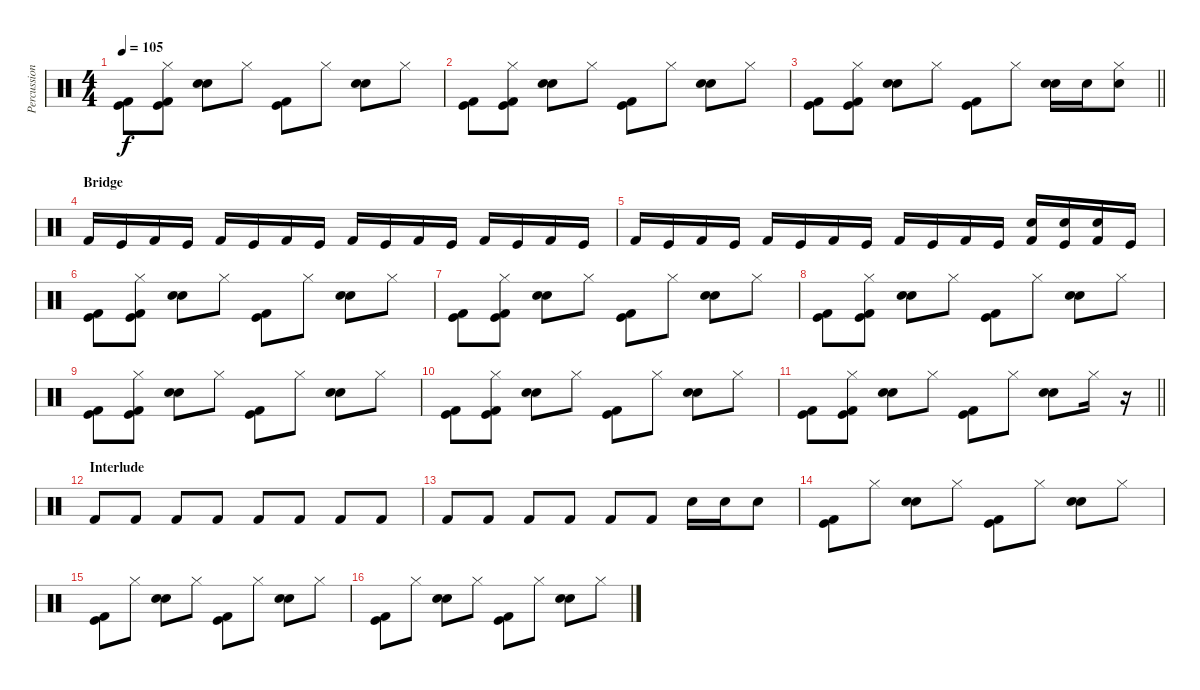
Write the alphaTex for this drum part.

\track ("Percussion" "Percussion") {instrument percussion}
\staff {score}
\articulation defaults
\ts (4 4)
\tempo 105
\clef neutral
\ks c
("Kick (hit) 2" "Kick (hit)").8{dy f} ("Hi-Hat (closed)" "Kick (hit) 2" "Kick (hit)").8 ("Hand Clap (hit)" "Electric Snare (hit)").8 "Hi-Hat (closed)".8 ("Kick (hit) 2" "Kick (hit)").8 "Hi-Hat (closed)".8 ("Hand Clap (hit)" "Electric Snare (hit)").8 "Hi-Hat (closed)".8 |
("Kick (hit) 2" "Kick (hit)").8 ("Hi-Hat (closed)" "Kick (hit) 2" "Kick (hit)").8 ("Hand Clap (hit)" "Electric Snare (hit)").8 "Hi-Hat (closed)".8 ("Kick (hit) 2" "Kick (hit)").8 "Hi-Hat (closed)".8 ("Hand Clap (hit)" "Electric Snare (hit)").8 "Hi-Hat (closed)".8 |
\barLineRight lightlight
("Kick (hit) 2" "Kick (hit)").8 ("Hi-Hat (closed)" "Kick (hit) 2" "Kick (hit)").8 ("Hand Clap (hit)" "Electric Snare (hit)").8 "Hi-Hat (closed)".8 ("Kick (hit) 2" "Kick (hit)").8 "Hi-Hat (closed)".8 ("Snare (hit) 2" "Hand Clap (hit)").16 "Snare (hit) 2".16 ("Hi-Hat (closed)" "Snare (hit) 2").8 |
\section ("" "Bridge")
"Kick (hit) 2".16 "Kick (hit)".16 "Kick (hit) 2".16 "Kick (hit)".16 "Kick (hit) 2".16 "Kick (hit)".16 "Kick (hit) 2".16 "Kick (hit)".16 "Kick (hit) 2".16 "Kick (hit)".16 "Kick (hit) 2".16 "Kick (hit)".16 "Kick (hit) 2".16 "Kick (hit)".16 "Kick (hit) 2".16 "Kick (hit)".16 |
"Kick (hit) 2".16 "Kick (hit)".16 "Kick (hit) 2".16 "Kick (hit)".16 "Kick (hit) 2".16 "Kick (hit)".16 "Kick (hit) 2".16 "Kick (hit)".16 "Kick (hit) 2".16 "Kick (hit)".16 "Kick (hit) 2".16 "Kick (hit)".16 ("Electric Snare (hit)" "Kick (hit) 2").16 ("Electric Snare (hit)" "Kick (hit)").16 ("Snare (hit) 2" "Kick (hit) 2").16 "Kick (hit)".16 |
("Kick (hit) 2" "Kick (hit)").8 ("Hi-Hat (closed)" "Kick (hit) 2" "Kick (hit)").8 ("Hand Clap (hit)" "Electric Snare (hit)").8 "Hi-Hat (closed)".8 ("Kick (hit) 2" "Kick (hit)").8 "Hi-Hat (closed)".8 ("Hand Clap (hit)" "Electric Snare (hit)").8 "Hi-Hat (closed)".8 |
("Kick (hit) 2" "Kick (hit)").8 ("Hi-Hat (closed)" "Kick (hit) 2" "Kick (hit)").8 ("Hand Clap (hit)" "Electric Snare (hit)").8 "Hi-Hat (closed)".8 ("Kick (hit) 2" "Kick (hit)").8 "Hi-Hat (closed)".8 ("Hand Clap (hit)" "Electric Snare (hit)").8 "Hi-Hat (closed)".8 |
("Kick (hit) 2" "Kick (hit)").8 ("Hi-Hat (closed)" "Kick (hit) 2" "Kick (hit)").8 ("Hand Clap (hit)" "Electric Snare (hit)").8 "Hi-Hat (closed)".8 ("Kick (hit) 2" "Kick (hit)").8 "Hi-Hat (closed)".8 ("Hand Clap (hit)" "Electric Snare (hit)").8 "Hi-Hat (closed)".8 |
("Kick (hit) 2" "Kick (hit)").8 ("Hi-Hat (closed)" "Kick (hit) 2" "Kick (hit)").8 ("Hand Clap (hit)" "Electric Snare (hit)").8 "Hi-Hat (closed)".8 ("Kick (hit) 2" "Kick (hit)").8 "Hi-Hat (closed)".8 ("Hand Clap (hit)" "Electric Snare (hit)").8 "Hi-Hat (closed)".8 |
("Kick (hit) 2" "Kick (hit)").8 ("Hi-Hat (closed)" "Kick (hit) 2" "Kick (hit)").8 ("Hand Clap (hit)" "Electric Snare (hit)").8 "Hi-Hat (closed)".8 ("Kick (hit) 2" "Kick (hit)").8 "Hi-Hat (closed)".8 ("Hand Clap (hit)" "Electric Snare (hit)").8 "Hi-Hat (closed)".8 |
\barLineRight lightlight
("Kick (hit) 2" "Kick (hit)").8 ("Hi-Hat (closed)" "Kick (hit) 2" "Kick (hit)").8 ("Hand Clap (hit)" "Electric Snare (hit)").8 "Hi-Hat (closed)".8 ("Kick (hit) 2" "Kick (hit)").8 "Hi-Hat (closed)".8 ("Hand Clap (hit)" "Electric Snare (hit)").8 "Hi-Hat (closed)".16 r.16{volume 10} |
\section ("" "Interlude")
"Kick (hit) 2".8{volume 13} "Kick (hit) 2".8 "Kick (hit) 2".8 "Kick (hit) 2".8 "Kick (hit) 2".8 "Kick (hit) 2".8 "Kick (hit) 2".8 "Kick (hit) 2".8 |
"Kick (hit) 2".8 "Kick (hit) 2".8 "Kick (hit) 2".8 "Kick (hit) 2".8 "Kick (hit) 2".8 "Kick (hit) 2".8 "Snare (hit) 2".16 "Snare (hit) 2".16 "Snare (hit) 2".8 |
("Kick (hit) 2" "Kick (hit)").8 "Hi-Hat (closed)".8 ("Hand Clap (hit)" "Electric Snare (hit)").8 "Hi-Hat (closed)".8 ("Kick (hit) 2" "Kick (hit)").8 "Hi-Hat (closed)".8 ("Hand Clap (hit)" "Electric Snare (hit)").8 "Hi-Hat (closed)".8 |
("Kick (hit) 2" "Kick (hit)").8 "Hi-Hat (closed)".8 ("Hand Clap (hit)" "Electric Snare (hit)").8 "Hi-Hat (closed)".8 ("Kick (hit) 2" "Kick (hit)").8 "Hi-Hat (closed)".8 ("Hand Clap (hit)" "Electric Snare (hit)").8 "Hi-Hat (closed)".8 |
("Kick (hit) 2" "Kick (hit)").8 "Hi-Hat (closed)".8 ("Hand Clap (hit)" "Electric Snare (hit)").8 "Hi-Hat (closed)".8 ("Kick (hit) 2" "Kick (hit)").8 "Hi-Hat (closed)".8 ("Hand Clap (hit)" "Electric Snare (hit)").8 "Hi-Hat (closed)".8
